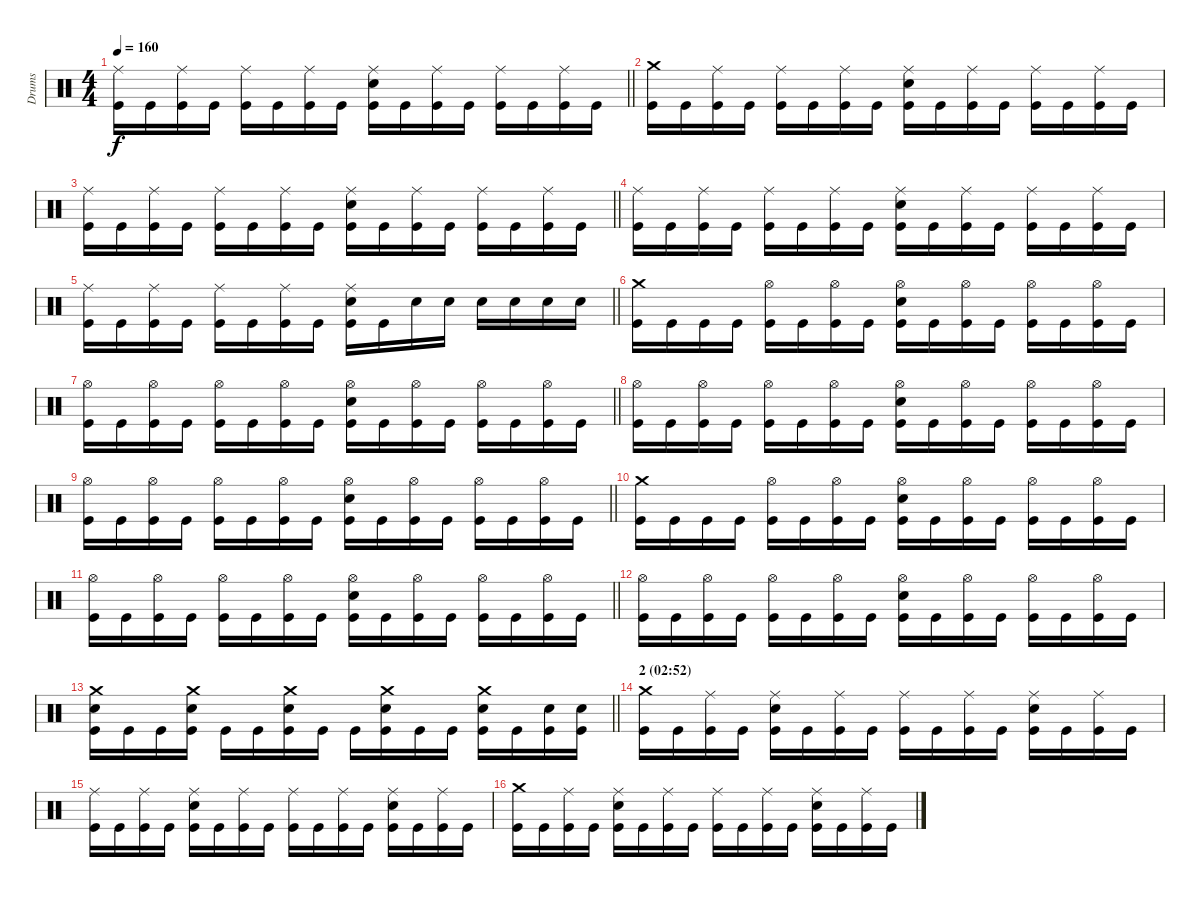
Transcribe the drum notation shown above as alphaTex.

\track ("Drums" "Drums") {instrument percussion}
\staff {score}
\articulation defaults
\ts (4 4)
\tempo 160
\clef neutral
\barLineRight lightlight
\ks c
("Ride (middle)" "Kick (hit)").16{dy f} "Kick (hit)".16 ("Ride (middle)" "Kick (hit)").16 "Kick (hit)".16 ("Ride (middle)" "Kick (hit)").16 "Kick (hit)".16 ("Ride (middle)" "Kick (hit)").16 "Kick (hit)".16 ("Ride (middle)" "Electric Snare (hit)" "Kick (hit)").16 "Kick (hit)".16 ("Ride (middle)" "Kick (hit)").16 "Kick (hit)".16 ("Ride (middle)" "Kick (hit)").16 "Kick (hit)".16 ("Ride (middle)" "Kick (hit)").16 "Kick (hit)".16 |
("Crash medium (hit)" "Kick (hit)").16 "Kick (hit)".16 ("Ride (middle)" "Kick (hit)").16 "Kick (hit)".16 ("Ride (middle)" "Kick (hit)").16 "Kick (hit)".16 ("Ride (middle)" "Kick (hit)").16 "Kick (hit)".16 ("Ride (middle)" "Electric Snare (hit)" "Kick (hit)").16 "Kick (hit)".16 ("Ride (middle)" "Kick (hit)").16 "Kick (hit)".16 ("Ride (middle)" "Kick (hit)").16 "Kick (hit)".16 ("Ride (middle)" "Kick (hit)").16 "Kick (hit)".16 |
\barLineRight lightlight
("Ride (middle)" "Kick (hit)").16 "Kick (hit)".16 ("Ride (middle)" "Kick (hit)").16 "Kick (hit)".16 ("Ride (middle)" "Kick (hit)").16 "Kick (hit)".16 ("Ride (middle)" "Kick (hit)").16 "Kick (hit)".16 ("Ride (middle)" "Electric Snare (hit)" "Kick (hit)").16 "Kick (hit)".16 ("Ride (middle)" "Kick (hit)").16 "Kick (hit)".16 ("Ride (middle)" "Kick (hit)").16 "Kick (hit)".16 ("Ride (middle)" "Kick (hit)").16 "Kick (hit)".16 |
("Ride (middle)" "Kick (hit)").16 "Kick (hit)".16 ("Ride (middle)" "Kick (hit)").16 "Kick (hit)".16 ("Ride (middle)" "Kick (hit)").16 "Kick (hit)".16 ("Ride (middle)" "Kick (hit)").16 "Kick (hit)".16 ("Ride (middle)" "Electric Snare (hit)" "Kick (hit)").16 "Kick (hit)".16 ("Ride (middle)" "Kick (hit)").16 "Kick (hit)".16 ("Ride (middle)" "Kick (hit)").16 "Kick (hit)".16 ("Ride (middle)" "Kick (hit)").16 "Kick (hit)".16 |
\barLineRight lightlight
("Ride (middle)" "Kick (hit)").16 "Kick (hit)".16 ("Ride (middle)" "Kick (hit)").16 "Kick (hit)".16 ("Ride (middle)" "Kick (hit)").16 "Kick (hit)".16 ("Ride (middle)" "Kick (hit)").16 "Kick (hit)".16 ("Ride (middle)" "Electric Snare (hit)" "Kick (hit)").16 "Kick (hit)".16 "Electric Snare (hit)".16 "Electric Snare (hit)".16 "Electric Snare (hit)".16 "Electric Snare (hit)".16 "Electric Snare (hit)".16 "Electric Snare (hit)".16 |
("Crash medium (hit)" "Kick (hit)").16 "Kick (hit)".16 "Kick (hit)".16 "Kick (hit)".16 ("Hi-Hat (open)" "Kick (hit)").16 "Kick (hit)".16 ("Hi-Hat (open)" "Kick (hit)").16 "Kick (hit)".16 ("Hi-Hat (open)" "Electric Snare (hit)" "Kick (hit)").16 "Kick (hit)".16 ("Hi-Hat (open)" "Kick (hit)").16 "Kick (hit)".16 ("Hi-Hat (open)" "Kick (hit)").16 "Kick (hit)".16 ("Hi-Hat (open)" "Kick (hit)").16 "Kick (hit)".16 |
\barLineRight lightlight
("Hi-Hat (open)" "Kick (hit)").16 "Kick (hit)".16 ("Hi-Hat (open)" "Kick (hit)").16 "Kick (hit)".16 ("Hi-Hat (open)" "Kick (hit)").16 "Kick (hit)".16 ("Hi-Hat (open)" "Kick (hit)").16 "Kick (hit)".16 ("Hi-Hat (open)" "Electric Snare (hit)" "Kick (hit)").16 "Kick (hit)".16 ("Hi-Hat (open)" "Kick (hit)").16 "Kick (hit)".16 ("Hi-Hat (open)" "Kick (hit)").16 "Kick (hit)".16 ("Hi-Hat (open)" "Kick (hit)").16 "Kick (hit)".16 |
("Hi-Hat (open)" "Kick (hit)").16 "Kick (hit)".16 ("Hi-Hat (open)" "Kick (hit)").16 "Kick (hit)".16 ("Hi-Hat (open)" "Kick (hit)").16 "Kick (hit)".16 ("Hi-Hat (open)" "Kick (hit)").16 "Kick (hit)".16 ("Hi-Hat (open)" "Electric Snare (hit)" "Kick (hit)").16 "Kick (hit)".16 ("Hi-Hat (open)" "Kick (hit)").16 "Kick (hit)".16 ("Hi-Hat (open)" "Kick (hit)").16 "Kick (hit)".16 ("Hi-Hat (open)" "Kick (hit)").16 "Kick (hit)".16 |
\barLineRight lightlight
("Hi-Hat (open)" "Kick (hit)").16 "Kick (hit)".16 ("Hi-Hat (open)" "Kick (hit)").16 "Kick (hit)".16 ("Hi-Hat (open)" "Kick (hit)").16 "Kick (hit)".16 ("Hi-Hat (open)" "Kick (hit)").16 "Kick (hit)".16 ("Hi-Hat (open)" "Electric Snare (hit)" "Kick (hit)").16 "Kick (hit)".16 ("Hi-Hat (open)" "Kick (hit)").16 "Kick (hit)".16 ("Hi-Hat (open)" "Kick (hit)").16 "Kick (hit)".16 ("Hi-Hat (open)" "Kick (hit)").16 "Kick (hit)".16 |
("Crash medium (hit)" "Kick (hit)").16 "Kick (hit)".16 "Kick (hit)".16 "Kick (hit)".16 ("Hi-Hat (open)" "Kick (hit)").16 "Kick (hit)".16 ("Hi-Hat (open)" "Kick (hit)").16 "Kick (hit)".16 ("Hi-Hat (open)" "Electric Snare (hit)" "Kick (hit)").16 "Kick (hit)".16 ("Hi-Hat (open)" "Kick (hit)").16 "Kick (hit)".16 ("Hi-Hat (open)" "Kick (hit)").16 "Kick (hit)".16 ("Hi-Hat (open)" "Kick (hit)").16 "Kick (hit)".16 |
\barLineRight lightlight
("Hi-Hat (open)" "Kick (hit)").16 "Kick (hit)".16 ("Hi-Hat (open)" "Kick (hit)").16 "Kick (hit)".16 ("Hi-Hat (open)" "Kick (hit)").16 "Kick (hit)".16 ("Hi-Hat (open)" "Kick (hit)").16 "Kick (hit)".16 ("Hi-Hat (open)" "Electric Snare (hit)" "Kick (hit)").16 "Kick (hit)".16 ("Hi-Hat (open)" "Kick (hit)").16 "Kick (hit)".16 ("Hi-Hat (open)" "Kick (hit)").16 "Kick (hit)".16 ("Hi-Hat (open)" "Kick (hit)").16 "Kick (hit)".16 |
("Hi-Hat (open)" "Kick (hit)").16 "Kick (hit)".16 ("Hi-Hat (open)" "Kick (hit)").16 "Kick (hit)".16 ("Hi-Hat (open)" "Kick (hit)").16 "Kick (hit)".16 ("Hi-Hat (open)" "Kick (hit)").16 "Kick (hit)".16 ("Hi-Hat (open)" "Electric Snare (hit)" "Kick (hit)").16 "Kick (hit)".16 ("Hi-Hat (open)" "Kick (hit)").16 "Kick (hit)".16 ("Hi-Hat (open)" "Kick (hit)").16 "Kick (hit)".16 ("Hi-Hat (open)" "Kick (hit)").16 "Kick (hit)".16 |
\barLineRight lightlight
("Crash medium (hit)" "Electric Snare (hit)" "Kick (hit)").16 "Kick (hit)".16 "Kick (hit)".16 ("Crash medium (hit)" "Electric Snare (hit)" "Kick (hit)").16 "Kick (hit)".16 "Kick (hit)".16 ("Crash medium (hit)" "Electric Snare (hit)" "Kick (hit)").16 "Kick (hit)".16 "Kick (hit)".16 ("Crash medium (hit)" "Electric Snare (hit)" "Kick (hit)").16 "Kick (hit)".16 "Kick (hit)".16 ("Crash medium (hit)" "Electric Snare (hit)" "Kick (hit)").16 "Kick (hit)".16 ("Electric Snare (hit)" "Kick (hit)").16 ("Electric Snare (hit)" "Kick (hit)").16 |
\section ("" "2 (02:52)")
("Crash medium (hit)" "Kick (hit)").16 "Kick (hit)".16 ("Ride (middle)" "Kick (hit)").16 "Kick (hit)".16 ("Ride (middle)" "Electric Snare (hit)" "Kick (hit)").16 "Kick (hit)".16 ("Ride (middle)" "Kick (hit)").16 "Kick (hit)".16 ("Ride (middle)" "Kick (hit)").16 "Kick (hit)".16 ("Ride (middle)" "Kick (hit)").16 "Kick (hit)".16 ("Ride (middle)" "Electric Snare (hit)" "Kick (hit)").16 "Kick (hit)".16 ("Ride (middle)" "Kick (hit)").16 "Kick (hit)".16 |
("Ride (middle)" "Kick (hit)").16 "Kick (hit)".16 ("Ride (middle)" "Kick (hit)").16 "Kick (hit)".16 ("Ride (middle)" "Electric Snare (hit)" "Kick (hit)").16 "Kick (hit)".16 ("Ride (middle)" "Kick (hit)").16 "Kick (hit)".16 ("Ride (middle)" "Kick (hit)").16 "Kick (hit)".16 ("Ride (middle)" "Kick (hit)").16 "Kick (hit)".16 ("Ride (middle)" "Electric Snare (hit)" "Kick (hit)").16 "Kick (hit)".16 ("Ride (middle)" "Kick (hit)").16 "Kick (hit)".16 |
("Crash medium (hit)" "Kick (hit)").16 "Kick (hit)".16 ("Ride (middle)" "Kick (hit)").16 "Kick (hit)".16 ("Ride (middle)" "Electric Snare (hit)" "Kick (hit)").16 "Kick (hit)".16 ("Ride (middle)" "Kick (hit)").16 "Kick (hit)".16 ("Ride (middle)" "Kick (hit)").16 "Kick (hit)".16 ("Ride (middle)" "Kick (hit)").16 "Kick (hit)".16 ("Ride (middle)" "Electric Snare (hit)" "Kick (hit)").16 "Kick (hit)".16 ("Ride (middle)" "Kick (hit)").16 "Kick (hit)".16
